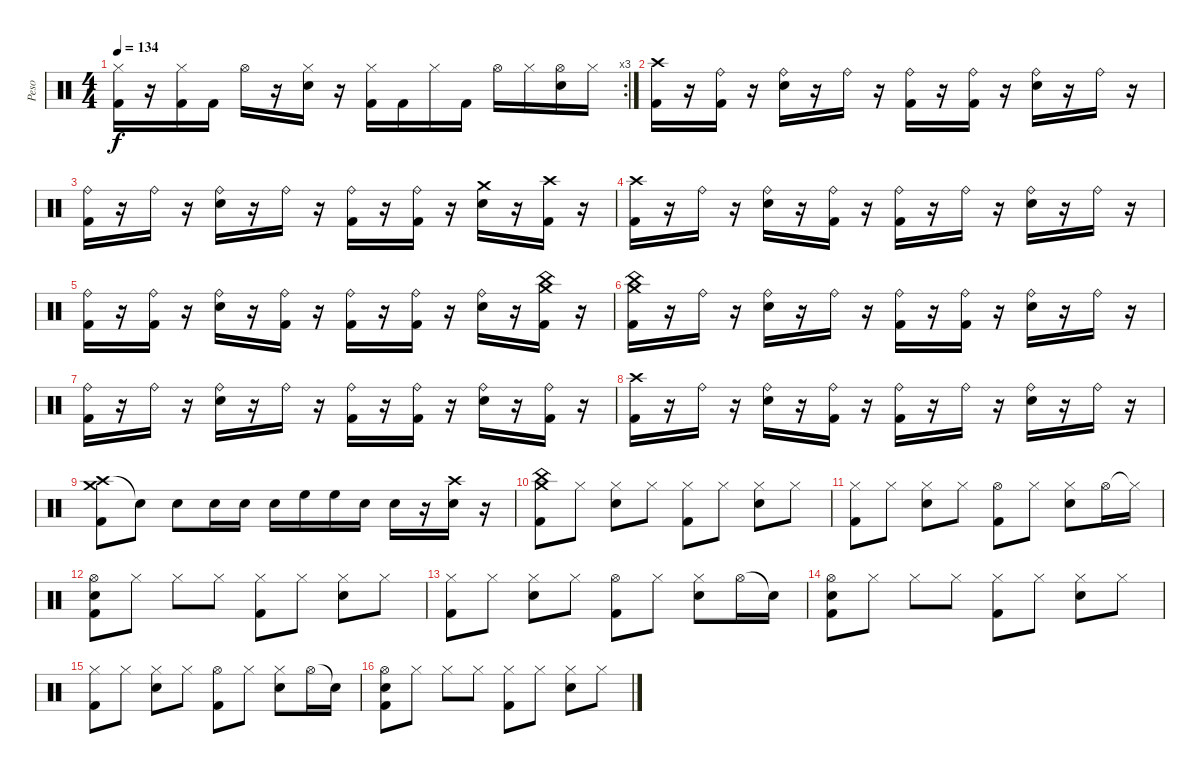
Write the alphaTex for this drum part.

\track ("Peso" "Peso") {instrument percussion}
\staff {score}
\articulation defaults
\rc 3
\ts (4 4)
\tempo 134
\clef neutral
\ks c
("Hi-Hat (closed)" "Kick (hit) 2").16{dy f} r.16 ("Hi-Hat (closed)" "Kick (hit) 2").16 "Kick (hit) 2".16 "Hi-Hat (open)".16 r.16 ("Hi-Hat (closed)" "Snare (hit) 2").16 r.16 ("Hi-Hat (closed)" "Kick (hit) 2").16 "Kick (hit) 2".16 "Hi-Hat (closed)".16 "Kick (hit) 2".16 "Hi-Hat (open)".16 "Hi-Hat (closed)".16 ("Hi-Hat (open)" "Snare (hit) 2").16 "Hi-Hat (closed)".16 |
("Crash high (hit)" "Kick (hit) 2").16 r.16 ("Ride (bell)" "Kick (hit) 2").16 r.16 ("Ride (bell)" "Snare (hit) 2").16 r.16 "Ride (bell)".16 r.16 ("Ride (bell)" "Kick (hit) 2").16 r.16 ("Ride (bell)" "Kick (hit) 2").16 r.16 ("Ride (bell)" "Snare (hit) 2").16 r.16 "Ride (bell)".16 r.16 |
("Ride (bell)" "Kick (hit) 2").16 r.16 "Ride (bell)".16 r.16 ("Ride (bell)" "Snare (hit) 2").16 r.16 "Ride (bell)".16 r.16 ("Ride (bell)" "Kick (hit) 2").16 r.16 ("Ride (bell)" "Kick (hit) 2").16 r.16 ("Crash medium (hit)" "Snare (hit) 2").16 r.16 ("Crash high (hit)" "Kick (hit) 2").16 r.16 |
("Crash high (hit)" "Kick (hit) 2").16 r.16 "Ride (bell)".16 r.16 ("Ride (bell)" "Snare (hit) 2").16 r.16 ("Ride (bell)" "Kick (hit) 2").16 r.16 ("Ride (bell)" "Kick (hit) 2").16 r.16 "Ride (bell)".16 r.16 ("Ride (bell)" "Snare (hit) 2").16 r.16 "Ride (bell)".16 r.16 |
("Ride (bell)" "Kick (hit) 2").16 r.16 ("Ride (bell)" "Kick (hit) 2").16 r.16 ("Ride (bell)" "Snare (hit) 2").16 r.16 ("Ride (bell)" "Kick (hit) 2").16 r.16 ("Ride (bell)" "Kick (hit) 2").16 r.16 ("Ride (bell)" "Kick (hit) 2").16 r.16 ("Ride (bell)" "Snare (hit) 2").16 r.16 ("Crash medium (hit)" "China (hit)" "Kick (hit) 2").16 r.16 |
("Crash medium (hit)" "China (hit)" "Kick (hit) 2").16 r.16 "Ride (bell)".16 r.16 ("Ride (bell)" "Snare (hit) 2").16 r.16 "Ride (bell)".16 r.16 ("Ride (bell)" "Kick (hit) 2").16 r.16 ("Ride (bell)" "Kick (hit) 2").16 r.16 ("Ride (bell)" "Snare (hit) 2").16 r.16 "Ride (bell)".16 r.16 |
("Ride (bell)" "Kick (hit) 2").16 r.16 "Ride (bell)".16 r.16 ("Ride (bell)" "Snare (hit) 2").16 r.16 "Ride (bell)".16 r.16 ("Ride (bell)" "Kick (hit) 2").16 r.16 ("Ride (bell)" "Kick (hit) 2").16 r.16 ("Ride (bell)" "Snare (hit) 2").16 r.16 ("Ride (bell)" "Kick (hit) 2").16 r.16 |
("Crash high (hit)" "Kick (hit) 2").16 r.16 "Ride (bell)".16 r.16 ("Ride (bell)" "Snare (hit) 2").16 r.16 ("Ride (bell)" "Kick (hit) 2").16 r.16 ("Ride (bell)" "Kick (hit) 2").16 r.16 "Ride (bell)".16 r.16 ("Ride (bell)" "Snare (hit) 2").16 r.16 "Ride (bell)".16 r.16 |
("Crash high (hit)" "Crash medium (hit)" "Kick (hit) 2").8 "Snare (hit)"{t}.8 "Snare (hit) 2".8 "Snare (hit) 2".16 "Snare (hit) 2".16 "Snare (hit) 2".16 "High Floor Tom (hit)".16 "High Floor Tom (hit)".16 "Snare (hit) 2".16 "Snare (hit) 2".16 r.16 ("Crash high (hit)" "Snare (hit) 2").16 r.16 |
("Crash medium (hit)" "China (hit)" "Kick (hit) 2").8 "Hi-Hat (closed)".8 ("Hi-Hat (closed)" "Snare (hit) 2").8 "Hi-Hat (closed)".8 ("Hi-Hat (closed)" "Kick (hit) 2").8 "Hi-Hat (closed)".8 ("Hi-Hat (closed)" "Snare (hit) 2").8 "Hi-Hat (closed)".8 |
("Hi-Hat (closed)" "Kick (hit) 2").8 "Hi-Hat (closed)".8 ("Hi-Hat (closed)" "Snare (hit) 2").8 "Hi-Hat (closed)".8 ("Hi-Hat (open)" "Kick (hit) 2").8 "Hi-Hat (closed)".8 ("Hi-Hat (closed)" "Snare (hit) 2").8 "Hi-Hat (open)".16 "Hi-Hat (closed)"{t}.16 |
("Hi-Hat (open)" "Snare (hit) 2" "Kick (hit) 2").8 "Hi-Hat (closed)".8 "Hi-Hat (closed)".8 "Hi-Hat (closed)".8 ("Hi-Hat (closed)" "Kick (hit) 2").8 "Hi-Hat (closed)".8 ("Hi-Hat (closed)" "Snare (hit) 2").8 "Hi-Hat (closed)".8 |
("Hi-Hat (closed)" "Kick (hit) 2").8 "Hi-Hat (closed)".8 ("Hi-Hat (closed)" "Snare (hit) 2").8 "Hi-Hat (closed)".8 ("Hi-Hat (open)" "Kick (hit) 2").8 "Hi-Hat (closed)".8 ("Hi-Hat (closed)" "Snare (hit) 2").8 "Hi-Hat (open)".16 "Snare (hit)"{t}.16 |
("Hi-Hat (open)" "Snare (hit) 2" "Kick (hit) 2").8 "Hi-Hat (closed)".8 "Hi-Hat (closed)".8 "Hi-Hat (closed)".8 ("Hi-Hat (closed)" "Kick (hit) 2").8 "Hi-Hat (closed)".8 ("Hi-Hat (closed)" "Snare (hit) 2").8 "Hi-Hat (closed)".8 |
("Hi-Hat (closed)" "Kick (hit) 2").8 "Hi-Hat (closed)".8 ("Hi-Hat (closed)" "Snare (hit) 2").8 "Hi-Hat (closed)".8 ("Hi-Hat (open)" "Kick (hit) 2").8 "Hi-Hat (closed)".8 ("Hi-Hat (closed)" "Snare (hit) 2").8 "Hi-Hat (open)".16 "Snare (hit)"{t}.16 |
("Hi-Hat (open)" "Snare (hit) 2" "Kick (hit) 2").8 "Hi-Hat (closed)".8 "Hi-Hat (closed)".8 "Hi-Hat (closed)".8 ("Hi-Hat (closed)" "Kick (hit) 2").8 "Hi-Hat (closed)".8 ("Hi-Hat (closed)" "Snare (hit) 2").8 "Hi-Hat (closed)".8
